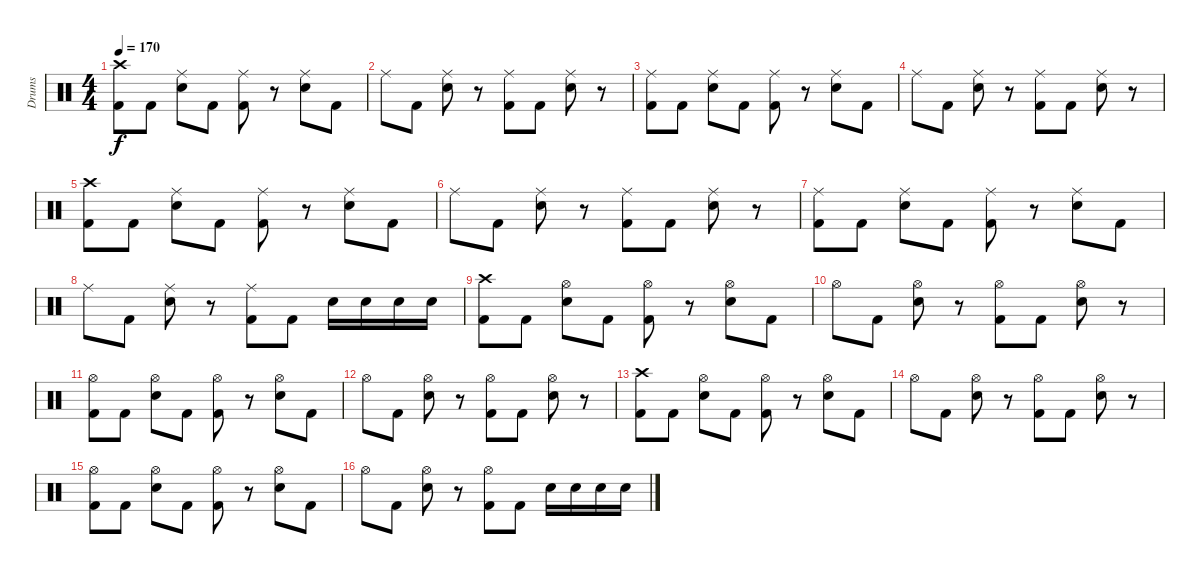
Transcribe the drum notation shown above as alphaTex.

\track ("Drums" "Drums") {instrument percussion}
\staff {score}
\articulation defaults
\ts (4 4)
\section ("" "")
\tempo 170
\clef neutral
\ks c
("Crash high (hit)" "Kick (hit) 2").8{dy f} "Kick (hit) 2".8 ("Ride (middle)" "Snare (hit) 2").8 "Kick (hit) 2".8 ("Ride (middle)" "Kick (hit) 2").8 r.8 ("Ride (middle)" "Snare (hit) 2").8 "Kick (hit) 2".8 |
"Ride (middle)".8 "Kick (hit) 2".8 ("Ride (middle)" "Snare (hit) 2").8 r.8 ("Ride (middle)" "Kick (hit) 2").8 "Kick (hit) 2".8 ("Ride (middle)" "Snare (hit) 2").8 r.8 |
("Ride (middle)" "Kick (hit) 2").8 "Kick (hit) 2".8 ("Ride (middle)" "Snare (hit) 2").8 "Kick (hit) 2".8 ("Ride (middle)" "Kick (hit) 2").8 r.8 ("Ride (middle)" "Snare (hit) 2").8 "Kick (hit) 2".8 |
"Ride (middle)".8 "Kick (hit) 2".8 ("Ride (middle)" "Snare (hit) 2").8 r.8 ("Ride (middle)" "Kick (hit) 2").8 "Kick (hit) 2".8 ("Ride (middle)" "Snare (hit) 2").8 r.8 |
("Crash high (hit)" "Kick (hit) 2").8 "Kick (hit) 2".8 ("Ride (middle)" "Snare (hit) 2").8 "Kick (hit) 2".8 ("Ride (middle)" "Kick (hit) 2").8 r.8 ("Ride (middle)" "Snare (hit) 2").8 "Kick (hit) 2".8 |
"Ride (middle)".8 "Kick (hit) 2".8 ("Ride (middle)" "Snare (hit) 2").8 r.8 ("Ride (middle)" "Kick (hit) 2").8 "Kick (hit) 2".8 ("Ride (middle)" "Snare (hit) 2").8 r.8 |
("Ride (middle)" "Kick (hit) 2").8 "Kick (hit) 2".8 ("Ride (middle)" "Snare (hit) 2").8 "Kick (hit) 2".8 ("Ride (middle)" "Kick (hit) 2").8 r.8 ("Ride (middle)" "Snare (hit) 2").8 "Kick (hit) 2".8 |
"Ride (middle)".8 "Kick (hit) 2".8 ("Ride (middle)" "Snare (hit) 2").8 r.8 ("Ride (middle)" "Kick (hit) 2").8 "Kick (hit) 2".8 "Snare (hit) 2".16 "Snare (hit) 2".16 "Snare (hit) 2".16 "Snare (hit) 2".16 |
\section ("" "")
("Crash high (hit)" "Kick (hit) 2").8 "Kick (hit) 2".8 ("Hi-Hat (open)" "Snare (hit) 2").8 "Kick (hit) 2".8 ("Hi-Hat (open)" "Kick (hit) 2").8 r.8 ("Hi-Hat (open)" "Snare (hit) 2").8 "Kick (hit) 2".8 |
"Hi-Hat (open)".8 "Kick (hit) 2".8 ("Hi-Hat (open)" "Snare (hit) 2").8 r.8 ("Hi-Hat (open)" "Kick (hit) 2").8 "Kick (hit) 2".8 ("Hi-Hat (open)" "Snare (hit) 2").8 r.8 |
("Hi-Hat (open)" "Kick (hit) 2").8 "Kick (hit) 2".8 ("Hi-Hat (open)" "Snare (hit) 2").8 "Kick (hit) 2".8 ("Hi-Hat (open)" "Kick (hit) 2").8 r.8 ("Hi-Hat (open)" "Snare (hit) 2").8 "Kick (hit) 2".8 |
"Hi-Hat (open)".8 "Kick (hit) 2".8 ("Hi-Hat (open)" "Snare (hit) 2").8 r.8 ("Hi-Hat (open)" "Kick (hit) 2").8 "Kick (hit) 2".8 ("Hi-Hat (open)" "Snare (hit) 2").8 r.8 |
("Crash high (hit)" "Kick (hit) 2").8 "Kick (hit) 2".8 ("Hi-Hat (open)" "Snare (hit) 2").8 "Kick (hit) 2".8 ("Hi-Hat (open)" "Kick (hit) 2").8 r.8 ("Hi-Hat (open)" "Snare (hit) 2").8 "Kick (hit) 2".8 |
"Hi-Hat (open)".8 "Kick (hit) 2".8 ("Hi-Hat (open)" "Snare (hit) 2").8 r.8 ("Hi-Hat (open)" "Kick (hit) 2").8 "Kick (hit) 2".8 ("Hi-Hat (open)" "Snare (hit) 2").8 r.8 |
("Hi-Hat (open)" "Kick (hit) 2").8 "Kick (hit) 2".8 ("Hi-Hat (open)" "Snare (hit) 2").8 "Kick (hit) 2".8 ("Hi-Hat (open)" "Kick (hit) 2").8 r.8 ("Hi-Hat (open)" "Snare (hit) 2").8 "Kick (hit) 2".8 |
"Hi-Hat (open)".8 "Kick (hit) 2".8 ("Hi-Hat (open)" "Snare (hit) 2").8 r.8 ("Hi-Hat (open)" "Kick (hit) 2").8 "Kick (hit) 2".8 "Snare (hit) 2".16 "Snare (hit) 2".16 "Snare (hit) 2".16 "Snare (hit) 2".16
